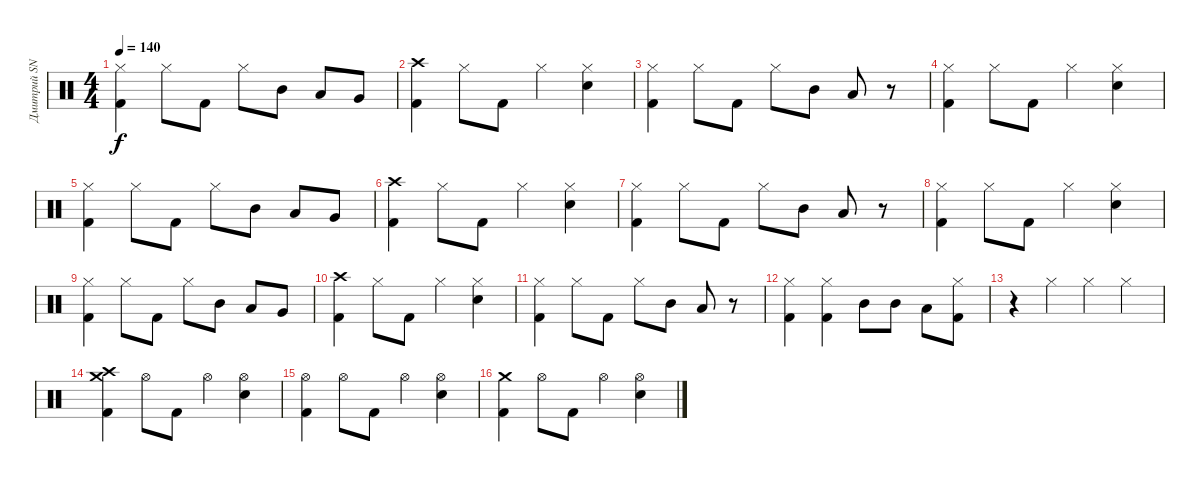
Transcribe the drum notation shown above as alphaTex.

\track ("Дмитрий SNAKE Хакимов" "Дмитрий SN") {instrument percussion}
\staff {score}
\articulation defaults
\ts (4 4)
\tempo 140
\clef neutral
\ks c
("Hi-Hat (closed)" "Kick (hit) 2").4{dy f} "Hi-Hat (closed)".8 "Kick (hit) 2".8 "Hi-Hat (closed)".8 "Mid Tom (hit)".8 "Low Tom (hit)".8 "Very Low Tom (hit)".8 |
("Crash high (hit)" "Kick (hit) 2").4 "Hi-Hat (closed)".8 "Kick (hit) 2".8 "Hi-Hat (closed)".4 ("Hi-Hat (closed)" "Snare (hit) 2").4 |
("Hi-Hat (closed)" "Kick (hit) 2").4 "Hi-Hat (closed)".8 "Kick (hit) 2".8 "Hi-Hat (closed)".8 "Mid Tom (hit)".8 "Low Tom (hit)".8 r.8 |
("Hi-Hat (closed)" "Kick (hit) 2").4 "Hi-Hat (closed)".8 "Kick (hit) 2".8 "Hi-Hat (closed)".4 ("Hi-Hat (closed)" "Snare (hit) 2").4 |
("Hi-Hat (closed)" "Kick (hit) 2").4 "Hi-Hat (closed)".8 "Kick (hit) 2".8 "Hi-Hat (closed)".8 "Mid Tom (hit)".8 "Low Tom (hit)".8 "Very Low Tom (hit)".8 |
("Crash high (hit)" "Kick (hit) 2").4 "Hi-Hat (closed)".8 "Kick (hit) 2".8 "Hi-Hat (closed)".4 ("Hi-Hat (closed)" "Snare (hit) 2").4 |
("Hi-Hat (closed)" "Kick (hit) 2").4 "Hi-Hat (closed)".8 "Kick (hit) 2".8 "Hi-Hat (closed)".8 "Mid Tom (hit)".8 "Low Tom (hit)".8 r.8 |
("Hi-Hat (closed)" "Kick (hit) 2").4 "Hi-Hat (closed)".8 "Kick (hit) 2".8 "Hi-Hat (closed)".4 ("Hi-Hat (closed)" "Snare (hit) 2").4 |
("Hi-Hat (closed)" "Kick (hit) 2").4 "Hi-Hat (closed)".8 "Kick (hit) 2".8 "Hi-Hat (closed)".8 "Mid Tom (hit)".8 "Low Tom (hit)".8 "Very Low Tom (hit)".8 |
("Crash high (hit)" "Kick (hit) 2").4 "Hi-Hat (closed)".8 "Kick (hit) 2".8 "Hi-Hat (closed)".4 ("Hi-Hat (closed)" "Snare (hit) 2").4 |
("Hi-Hat (closed)" "Kick (hit) 2").4 "Hi-Hat (closed)".8 "Kick (hit) 2".8 "Hi-Hat (closed)".8 "Mid Tom (hit)".8 "Low Tom (hit)".8 r.8 |
("Hi-Hat (closed)" "Kick (hit) 2").4 ("Hi-Hat (closed)" "Kick (hit) 2").4 "Mid Tom (hit)".8 "Mid Tom (hit)".8 "Low Tom (hit)".8 ("Hi-Hat (closed)" "Kick (hit) 2").8 |
r.4 "Hi-Hat (closed)".4 "Hi-Hat (closed)".4 "Hi-Hat (closed)".4 |
("Crash high (hit)" "Crash medium (hit)" "Kick (hit) 2").4 "Hi-Hat (open)".8 "Kick (hit) 2".8 "Hi-Hat (open)".4 ("Hi-Hat (open)" "Snare (hit) 2").4 |
("Hi-Hat (open)" "Kick (hit) 2").4 "Hi-Hat (open)".8 "Kick (hit) 2".8 "Hi-Hat (open)".4 ("Hi-Hat (open)" "Snare (hit) 2").4 |
("Crash medium (hit)" "Kick (hit) 2").4 "Hi-Hat (open)".8 "Kick (hit) 2".8 "Hi-Hat (open)".4 ("Hi-Hat (open)" "Snare (hit) 2").4
